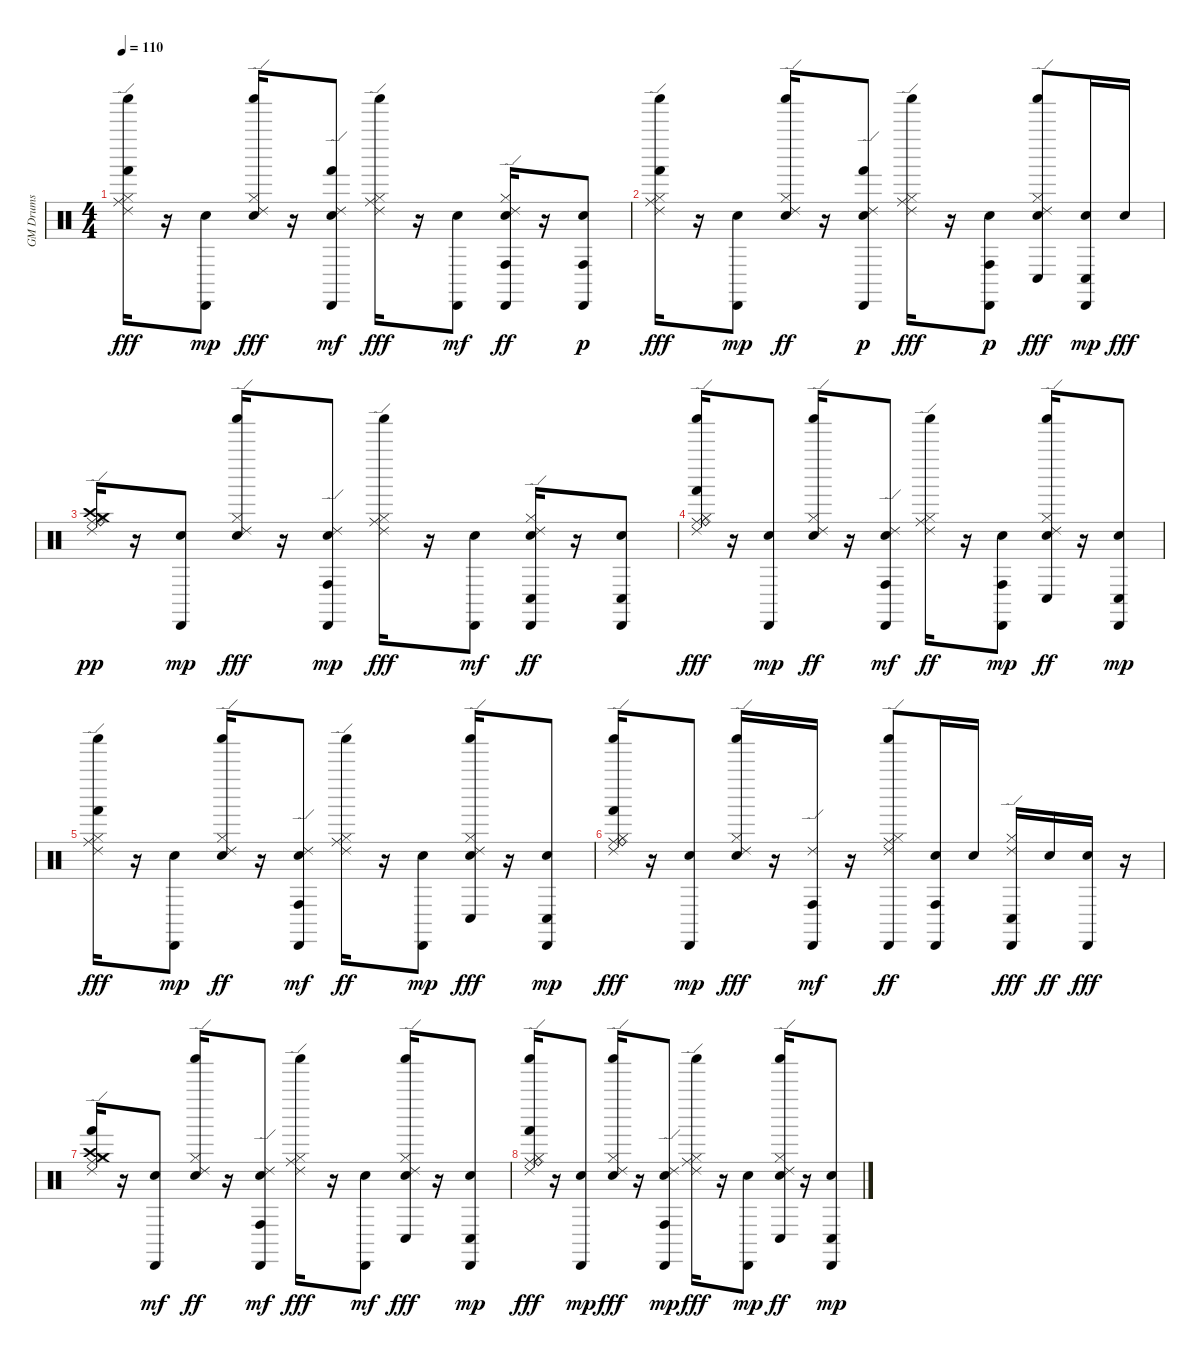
\track ("GM Drums" "GM Drums") {instrument percussion}
\staff {score}
\articulation defaults
\ts (4 4)
\tempo 110
\clef neutral
\ks c
("Hi-Hat (closed)" "Ride (middle)" "Ride (edge) 2" "Hand (hit)" "Shaker (hit)").16{dy fff} r.16 ("Snare (hit)" "Cabasa (hit)").8{dy mp} ("Snare (hit) 2" "Hi-Hat (closed)" "Ride (edge) 2" "Shaker (hit)").16{dy fff} r.16 ("Snare (hit)" "Ride (edge) 2" "Hand (hit)" "Cabasa (hit)").8{dy mf} ("Hi-Hat (closed)" "Ride (middle)" "Ride (edge) 2" "Shaker (hit)").16{dy fff} r.16 ("Snare (hit)" "Cabasa (hit)").8{dy mf} ("Snare (hit) 2" "Hi-Hat (closed)" "Ride (edge) 2" "Conga high (hit)" "Cabasa (hit)").16{dy ff} r.16 ("Snare (hit)" "Conga high (hit)" "Cabasa (hit)").8{dy p} |
("Hi-Hat (closed)" "Ride (middle)" "Ride (edge) 2" "Hand (hit)" "Shaker (hit)").16{dy fff} r.16 ("Snare (hit)" "Cabasa (hit)").8{dy mp} ("Snare (hit) 2" "Hi-Hat (closed)" "Ride (edge) 2" "Shaker (hit)").16{dy ff} r.16 ("Snare (hit)" "Ride (edge) 2" "Hand (hit)" "Cabasa (hit)").8{dy p} ("Hi-Hat (closed)" "Ride (middle)" "Ride (edge) 2" "Shaker (hit)").16{dy fff} r.16 ("Snare (hit)" "Conga high (hit)" "Cabasa (hit)").8{dy p} ("Snare (hit) 2" "Hi-Hat (closed)" "Ride (edge) 2" "Conga low (hit)" "Shaker (hit)").8{dy fff} ("Snare (hit)" "Conga low (hit)" "Cabasa (hit)").16{dy mp} "Snare (hit) 2".16{dy fff} |
("Hi-Hat (closed)" "Crash high (hit)" "Ride (middle)" "Ride (bell)" "Crash medium (hit)" "Ride (edge) 2").16{dy pp} r.16 ("Snare (hit)" "Cabasa (hit)").8{dy mp} ("Snare (hit) 2" "Hi-Hat (closed)" "Ride (edge) 2" "Shaker (hit)").16{dy fff} r.16 ("Snare (hit)" "Ride (edge) 2" "Conga high (hit)" "Cabasa (hit)").8{dy mp} ("Hi-Hat (closed)" "Ride (middle)" "Ride (edge) 2" "Shaker (hit)").16{dy fff} r.16 ("Snare (hit)" "Cabasa (hit)").8{dy mf} ("Snare (hit) 2" "Hi-Hat (closed)" "Ride (edge) 2" "Conga low (hit)" "Cabasa (hit)").16{dy ff} r.16 ("Snare (hit)" "Conga low (hit)" "Cabasa (hit)").8 |
("Hi-Hat (closed)" "Ride (middle)" "Ride (bell)" "Ride (edge) 2" "Hand (hit)" "Shaker (hit)").16{dy fff} r.16 ("Snare (hit)" "Cabasa (hit)").8{dy mp} ("Snare (hit) 2" "Hi-Hat (closed)" "Ride (edge) 2" "Shaker (hit)").16{dy ff} r.16 ("Snare (hit)" "Ride (edge) 2" "Conga high (hit)" "Cabasa (hit)").8{dy mf} ("Hi-Hat (closed)" "Ride (middle)" "Ride (edge) 2" "Shaker (hit)").16{dy ff} r.16 ("Snare (hit)" "Conga high (hit)" "Cabasa (hit)").8{dy mp} ("Snare (hit) 2" "Hi-Hat (closed)" "Ride (edge) 2" "Conga low (hit)" "Shaker (hit)").16{dy ff} r.16 ("Snare (hit)" "Conga low (hit)" "Cabasa (hit)").8{dy mp} |
("Hi-Hat (closed)" "Ride (middle)" "Ride (edge) 2" "Hand (hit)" "Shaker (hit)").16{dy fff} r.16 ("Snare (hit)" "Cabasa (hit)").8{dy mp} ("Snare (hit) 2" "Hi-Hat (closed)" "Ride (edge) 2" "Shaker (hit)").16{dy ff} r.16 ("Snare (hit)" "Ride (edge) 2" "Conga high (hit)" "Cabasa (hit)").8{dy mf} ("Hi-Hat (closed)" "Ride (middle)" "Ride (edge) 2" "Shaker (hit)").16{dy ff} r.16 ("Snare (hit)" "Cabasa (hit)").8{dy mp} ("Snare (hit) 2" "Hi-Hat (closed)" "Ride (edge) 2" "Conga low (hit)" "Shaker (hit)").16{dy fff} r.16 ("Snare (hit)" "Conga low (hit)" "Cabasa (hit)").8{dy mp} |
("Hi-Hat (closed)" "Ride (middle)" "Ride (bell)" "Ride (edge) 2" "Hand (hit)" "Shaker (hit)").16{dy fff} r.16 ("Snare (hit)" "Cabasa (hit)").8{dy mp} ("Snare (hit) 2" "Hi-Hat (closed)" "Ride (edge) 2" "Shaker (hit)").16{dy fff} r.16 ("Ride (edge) 2" "Conga high (hit)" "Cabasa (hit)").16{dy mf} r.16 ("Hi-Hat (closed)" "Ride (middle)" "Ride (edge) 2" "Cabasa (hit)" "Shaker (hit)").8{dy ff} ("Snare (hit) 2" "Conga high (hit)" "Cabasa (hit)").16 "Snare (hit) 2".16 ("Hi-Hat (closed)" "Ride (edge) 2" "Conga low (hit)" "Cabasa (hit)").16{dy fff} "Snare (hit) 2".16{dy ff} ("Snare (hit) 2" "Cabasa (hit)").16{dy fff} r.16 |
("Hi-Hat (closed)" "Crash high (hit)" "Ride (middle)" "Crash medium (hit)" "Ride (edge) 2" "Hand (hit)").16 r.16 ("Snare (hit)" "Cabasa (hit)").8{dy mf} ("Snare (hit) 2" "Hi-Hat (closed)" "Ride (edge) 2" "Shaker (hit)").16{dy ff} r.16 ("Snare (hit)" "Ride (edge) 2" "Conga high (hit)" "Cabasa (hit)").8{dy mf} ("Hi-Hat (closed)" "Ride (middle)" "Ride (edge) 2" "Shaker (hit)").16{dy fff} r.16 ("Snare (hit)" "Cabasa (hit)").8{dy mf} ("Snare (hit) 2" "Hi-Hat (closed)" "Ride (edge) 2" "Conga low (hit)" "Shaker (hit)").16{dy fff} r.16 ("Snare (hit)" "Conga low (hit)" "Cabasa (hit)").8{dy mp} |
("Hi-Hat (closed)" "Ride (middle)" "Ride (bell)" "Ride (edge) 2" "Hand (hit)" "Shaker (hit)").16{dy fff} r.16 ("Snare (hit)" "Cabasa (hit)").8{dy mp} ("Snare (hit) 2" "Hi-Hat (closed)" "Ride (edge) 2" "Shaker (hit)").16{dy fff} r.16 ("Snare (hit)" "Ride (edge) 2" "Conga high (hit)" "Cabasa (hit)").8{dy mp} ("Hi-Hat (closed)" "Ride (middle)" "Ride (edge) 2" "Shaker (hit)").16{dy fff} r.16 ("Snare (hit)" "Cabasa (hit)").8{dy mp} ("Snare (hit) 2" "Hi-Hat (closed)" "Ride (edge) 2" "Conga low (hit)" "Shaker (hit)").16{dy ff} r.16 ("Snare (hit)" "Conga low (hit)" "Cabasa (hit)").8{dy mp}
